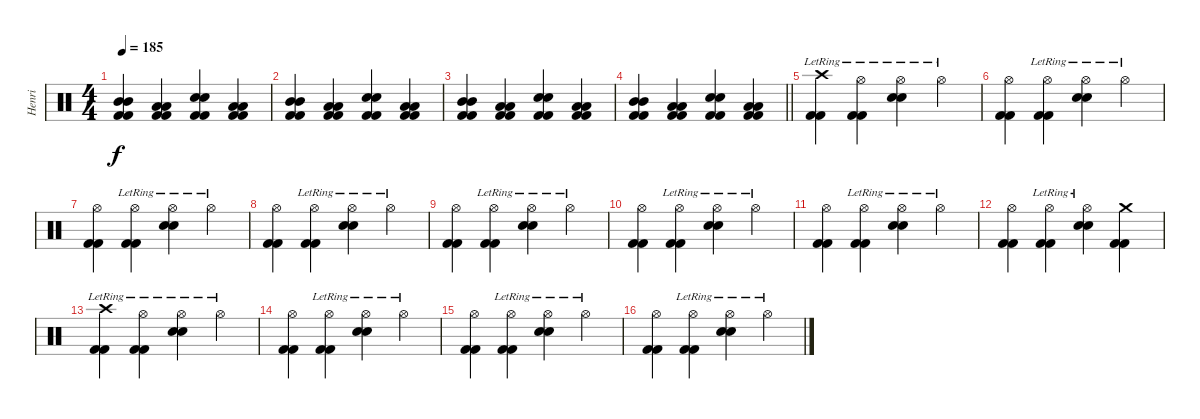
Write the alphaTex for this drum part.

\track ("Henri" "Henri") {instrument percussion}
\staff {score}
\articulation defaults
\ts (4 4)
\tempo 185
\clef neutral
\ks c
("Mid Tom (hit)" "Mid Tom (hit)" "Kick (hit) 2" "Kick (hit) 2").4{dy f} ("Low Tom (hit)" "Low Tom (hit)" "Kick (hit) 2" "Kick (hit) 2").4 ("Snare (hit) 2" "Snare (hit) 2" "Kick (hit) 2" "Kick (hit) 2").4 ("Low Tom (hit)" "Low Tom (hit)" "Kick (hit) 2" "Kick (hit) 2").4 |
("Mid Tom (hit)" "Mid Tom (hit)" "Kick (hit) 2" "Kick (hit) 2").4 ("Low Tom (hit)" "Low Tom (hit)" "Kick (hit) 2" "Kick (hit) 2").4 ("Snare (hit) 2" "Snare (hit) 2" "Kick (hit) 2" "Kick (hit) 2").4 ("Low Tom (hit)" "Low Tom (hit)" "Kick (hit) 2" "Kick (hit) 2").4 |
("Mid Tom (hit)" "Mid Tom (hit)" "Kick (hit) 2" "Kick (hit) 2").4 ("Low Tom (hit)" "Low Tom (hit)" "Kick (hit) 2" "Kick (hit) 2").4 ("Snare (hit) 2" "Snare (hit) 2" "Kick (hit) 2" "Kick (hit) 2").4 ("Low Tom (hit)" "Low Tom (hit)" "Kick (hit) 2" "Kick (hit) 2").4 |
\barLineRight lightlight
("Mid Tom (hit)" "Mid Tom (hit)" "Kick (hit) 2" "Kick (hit) 2").4 ("Low Tom (hit)" "Low Tom (hit)" "Kick (hit) 2" "Kick (hit) 2").4 ("Snare (hit) 2" "Snare (hit) 2" "Kick (hit) 2" "Kick (hit) 2").4 ("Low Tom (hit)" "Low Tom (hit)" "Kick (hit) 2" "Kick (hit) 2").4 |
("Crash high (hit)"{lr} "Kick (hit) 2" "Kick (hit) 2").4 ("Hi-Hat (open)"{lr} "Kick (hit) 2" "Kick (hit) 2").4 ("Hi-Hat (open)"{lr} "Snare (hit) 2" "Snare (hit) 2").4 "Hi-Hat (open)"{lr}.4 |
("Hi-Hat (open)" "Kick (hit) 2" "Kick (hit) 2").4 ("Hi-Hat (open)"{lr} "Kick (hit) 2" "Kick (hit) 2").4 ("Hi-Hat (open)"{lr} "Snare (hit) 2" "Snare (hit) 2").4 "Hi-Hat (open)"{lr}.4 |
("Hi-Hat (open)" "Kick (hit) 2" "Kick (hit) 2").4 ("Hi-Hat (open)"{lr} "Kick (hit) 2" "Kick (hit) 2").4 ("Hi-Hat (open)"{lr} "Snare (hit) 2" "Snare (hit) 2").4 "Hi-Hat (open)"{lr}.4 |
("Hi-Hat (open)" "Kick (hit) 2" "Kick (hit) 2").4 ("Hi-Hat (open)"{lr} "Kick (hit) 2" "Kick (hit) 2").4 ("Hi-Hat (open)"{lr} "Snare (hit) 2" "Snare (hit) 2").4 "Hi-Hat (open)"{lr}.4 |
("Hi-Hat (open)" "Kick (hit) 2" "Kick (hit) 2").4 ("Hi-Hat (open)"{lr} "Kick (hit) 2" "Kick (hit) 2").4 ("Hi-Hat (open)"{lr} "Snare (hit) 2" "Snare (hit) 2").4 "Hi-Hat (open)"{lr}.4 |
("Hi-Hat (open)" "Kick (hit) 2" "Kick (hit) 2").4 ("Hi-Hat (open)"{lr} "Kick (hit) 2" "Kick (hit) 2").4 ("Hi-Hat (open)"{lr} "Snare (hit) 2" "Snare (hit) 2").4 "Hi-Hat (open)"{lr}.4 |
("Hi-Hat (open)" "Kick (hit) 2" "Kick (hit) 2").4 ("Hi-Hat (open)"{lr} "Kick (hit) 2" "Kick (hit) 2").4 ("Hi-Hat (open)"{lr} "Snare (hit) 2" "Snare (hit) 2").4 "Hi-Hat (open)"{lr}.4 |
("Hi-Hat (open)" "Kick (hit) 2" "Kick (hit) 2").4 ("Hi-Hat (open)"{lr} "Kick (hit) 2" "Kick (hit) 2").4 ("Hi-Hat (open)"{lr} "Snare (hit) 2" "Snare (hit) 2").4 ("Crash medium (hit)" "Kick (hit) 2" "Kick (hit) 2").4 |
("Crash high (hit)"{lr} "Kick (hit) 2" "Kick (hit) 2").4 ("Hi-Hat (open)"{lr} "Kick (hit) 2" "Kick (hit) 2").4 ("Hi-Hat (open)"{lr} "Snare (hit) 2" "Snare (hit) 2").4 "Hi-Hat (open)"{lr}.4 |
("Hi-Hat (open)" "Kick (hit) 2" "Kick (hit) 2").4 ("Hi-Hat (open)"{lr} "Kick (hit) 2" "Kick (hit) 2").4 ("Hi-Hat (open)"{lr} "Snare (hit) 2" "Snare (hit) 2").4 "Hi-Hat (open)"{lr}.4 |
("Hi-Hat (open)" "Kick (hit) 2" "Kick (hit) 2").4 ("Hi-Hat (open)"{lr} "Kick (hit) 2" "Kick (hit) 2").4 ("Hi-Hat (open)"{lr} "Snare (hit) 2" "Snare (hit) 2").4 "Hi-Hat (open)"{lr}.4 |
("Hi-Hat (open)" "Kick (hit) 2" "Kick (hit) 2").4 ("Hi-Hat (open)"{lr} "Kick (hit) 2" "Kick (hit) 2").4 ("Hi-Hat (open)"{lr} "Snare (hit) 2" "Snare (hit) 2").4 "Hi-Hat (open)"{lr}.4
